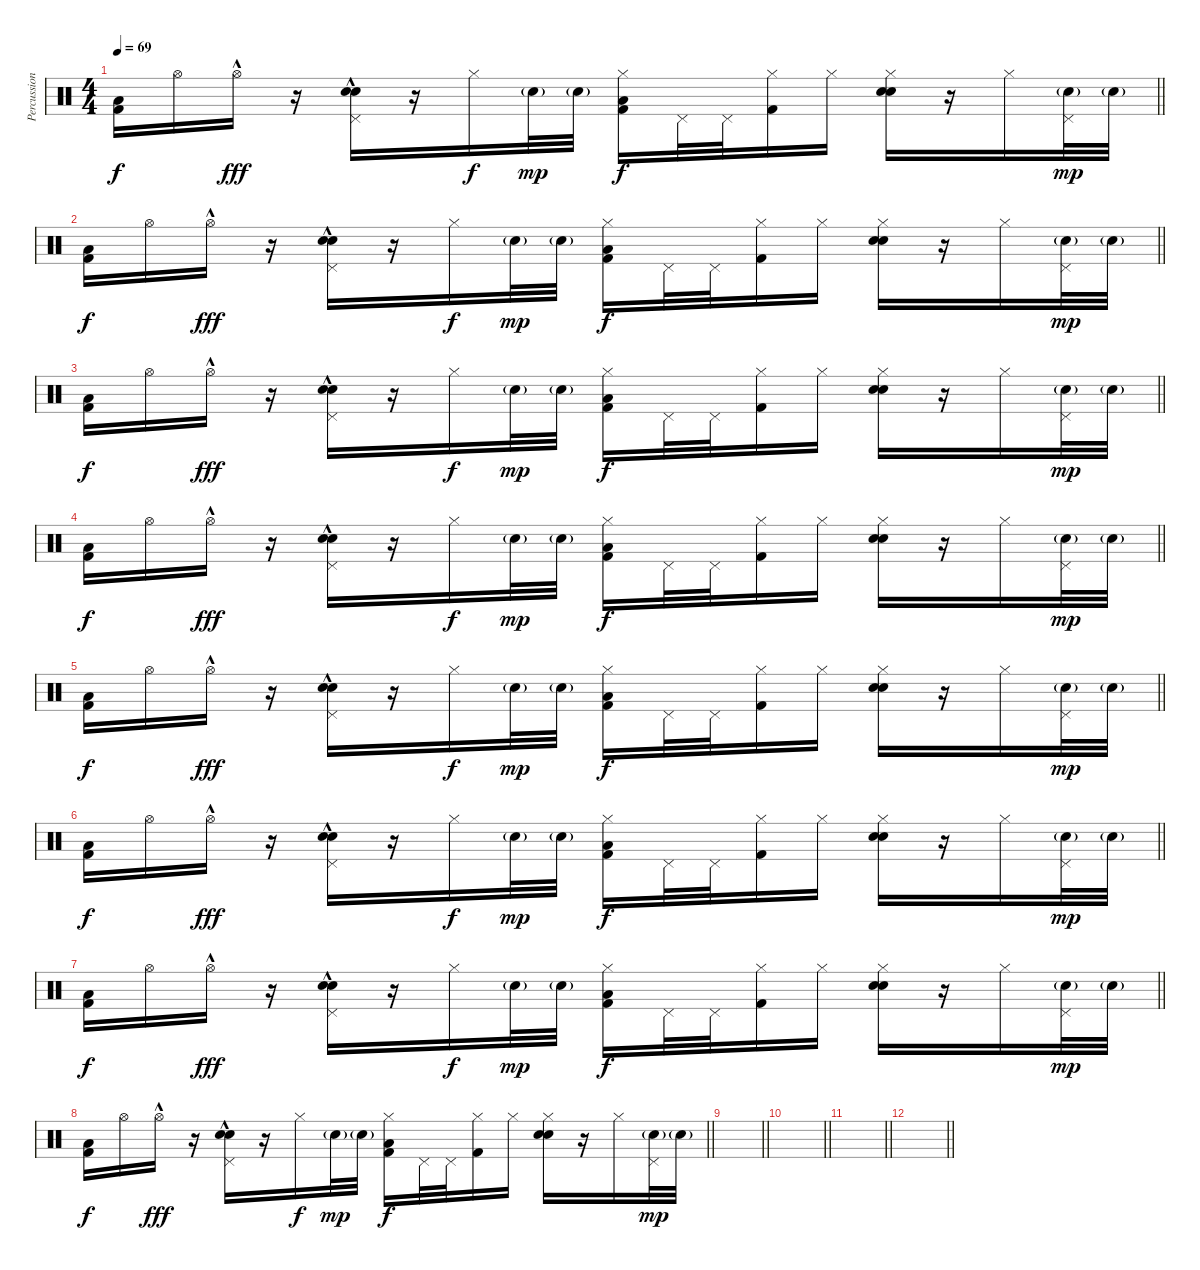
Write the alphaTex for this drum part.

\track ("Percussions" "Percussion") {instrument percussion}
\staff {score}
\articulation defaults
\ts (4 4)
\tempo 69
\clef neutral
\barLineRight lightlight
\ks c
("Low Floor Tom (hit)" "Kick (hit) 2").16{dy f} "Hi-Hat (open)".16 "Hi-Hat (open)"{hac}.16{dy fff} r.16 ("Pedal Hi-Hat (hit)"{hac} "Snare (hit) 2" "Electric Snare (hit)").16 r.16 "Hi-Hat (closed)".16{dy f} "Snare (hit) 2"{g}.32{dy mp} "Snare (hit) 2"{g}.32 ("Hi-Hat (closed)" "Low Floor Tom (hit)" "Kick (hit) 2").16{dy f} "Pedal Hi-Hat (hit)".32 "Pedal Hi-Hat (hit)".32 ("Hi-Hat (closed)" "Kick (hit) 2").16 "Hi-Hat (closed)".16 ("Hi-Hat (closed)" "Snare (hit) 2" "Electric Snare (hit)").16 r.16 "Hi-Hat (closed)".16 ("Pedal Hi-Hat (hit)" "Snare (hit) 2"{g}).32{dy mp} "Snare (hit) 2"{g}.32 |
\barLineRight lightlight
("Low Floor Tom (hit)" "Kick (hit) 2").16{dy f} "Hi-Hat (open)".16 "Hi-Hat (open)"{hac}.16{dy fff} r.16 ("Pedal Hi-Hat (hit)"{hac} "Snare (hit) 2" "Electric Snare (hit)").16 r.16 "Hi-Hat (closed)".16{dy f} "Snare (hit) 2"{g}.32{dy mp} "Snare (hit) 2"{g}.32 ("Hi-Hat (closed)" "Low Floor Tom (hit)" "Kick (hit) 2").16{dy f} "Pedal Hi-Hat (hit)".32 "Pedal Hi-Hat (hit)".32 ("Hi-Hat (closed)" "Kick (hit) 2").16 "Hi-Hat (closed)".16 ("Hi-Hat (closed)" "Snare (hit) 2" "Electric Snare (hit)").16 r.16 "Hi-Hat (closed)".16 ("Pedal Hi-Hat (hit)" "Snare (hit) 2"{g}).32{dy mp} "Snare (hit) 2"{g}.32 |
\barLineRight lightlight
("Low Floor Tom (hit)" "Kick (hit) 2").16{dy f} "Hi-Hat (open)".16 "Hi-Hat (open)"{hac}.16{dy fff} r.16 ("Pedal Hi-Hat (hit)"{hac} "Snare (hit) 2" "Electric Snare (hit)").16 r.16 "Hi-Hat (closed)".16{dy f} "Snare (hit) 2"{g}.32{dy mp} "Snare (hit) 2"{g}.32 ("Hi-Hat (closed)" "Low Floor Tom (hit)" "Kick (hit) 2").16{dy f} "Pedal Hi-Hat (hit)".32 "Pedal Hi-Hat (hit)".32 ("Hi-Hat (closed)" "Kick (hit) 2").16 "Hi-Hat (closed)".16 ("Hi-Hat (closed)" "Snare (hit) 2" "Electric Snare (hit)").16 r.16 "Hi-Hat (closed)".16 ("Pedal Hi-Hat (hit)" "Snare (hit) 2"{g}).32{dy mp} "Snare (hit) 2"{g}.32 |
\barLineRight lightlight
("Low Floor Tom (hit)" "Kick (hit) 2").16{dy f} "Hi-Hat (open)".16 "Hi-Hat (open)"{hac}.16{dy fff} r.16 ("Pedal Hi-Hat (hit)"{hac} "Snare (hit) 2" "Electric Snare (hit)").16 r.16 "Hi-Hat (closed)".16{dy f} "Snare (hit) 2"{g}.32{dy mp} "Snare (hit) 2"{g}.32 ("Hi-Hat (closed)" "Low Floor Tom (hit)" "Kick (hit) 2").16{dy f} "Pedal Hi-Hat (hit)".32 "Pedal Hi-Hat (hit)".32 ("Hi-Hat (closed)" "Kick (hit) 2").16 "Hi-Hat (closed)".16 ("Hi-Hat (closed)" "Snare (hit) 2" "Electric Snare (hit)").16 r.16 "Hi-Hat (closed)".16 ("Pedal Hi-Hat (hit)" "Snare (hit) 2"{g}).32{dy mp} "Snare (hit) 2"{g}.32 |
\barLineRight lightlight
("Low Floor Tom (hit)" "Kick (hit) 2").16{dy f volume 0} "Hi-Hat (open)".16 "Hi-Hat (open)"{hac}.16{dy fff} r.16 ("Pedal Hi-Hat (hit)"{hac} "Snare (hit) 2" "Electric Snare (hit)").16 r.16 "Hi-Hat (closed)".16{dy f} "Snare (hit) 2"{g}.32{dy mp} "Snare (hit) 2"{g}.32 ("Hi-Hat (closed)" "Low Floor Tom (hit)" "Kick (hit) 2").16{dy f} "Pedal Hi-Hat (hit)".32 "Pedal Hi-Hat (hit)".32 ("Hi-Hat (closed)" "Kick (hit) 2").16 "Hi-Hat (closed)".16 ("Hi-Hat (closed)" "Snare (hit) 2" "Electric Snare (hit)").16 r.16 "Hi-Hat (closed)".16 ("Pedal Hi-Hat (hit)" "Snare (hit) 2"{g}).32{dy mp} "Snare (hit) 2"{g}.32 |
\barLineRight lightlight
("Low Floor Tom (hit)" "Kick (hit) 2").16{dy f} "Hi-Hat (open)".16 "Hi-Hat (open)"{hac}.16{dy fff} r.16 ("Pedal Hi-Hat (hit)"{hac} "Snare (hit) 2" "Electric Snare (hit)").16 r.16 "Hi-Hat (closed)".16{dy f} "Snare (hit) 2"{g}.32{dy mp} "Snare (hit) 2"{g}.32 ("Hi-Hat (closed)" "Low Floor Tom (hit)" "Kick (hit) 2").16{dy f} "Pedal Hi-Hat (hit)".32 "Pedal Hi-Hat (hit)".32 ("Hi-Hat (closed)" "Kick (hit) 2").16 "Hi-Hat (closed)".16 ("Hi-Hat (closed)" "Snare (hit) 2" "Electric Snare (hit)").16 r.16 "Hi-Hat (closed)".16 ("Pedal Hi-Hat (hit)" "Snare (hit) 2"{g}).32{dy mp} "Snare (hit) 2"{g}.32 |
\barLineRight lightlight
("Low Floor Tom (hit)" "Kick (hit) 2").16{dy f} "Hi-Hat (open)".16 "Hi-Hat (open)"{hac}.16{dy fff} r.16 ("Pedal Hi-Hat (hit)"{hac} "Snare (hit) 2" "Electric Snare (hit)").16 r.16 "Hi-Hat (closed)".16{dy f} "Snare (hit) 2"{g}.32{dy mp} "Snare (hit) 2"{g}.32 ("Hi-Hat (closed)" "Low Floor Tom (hit)" "Kick (hit) 2").16{dy f} "Pedal Hi-Hat (hit)".32 "Pedal Hi-Hat (hit)".32 ("Hi-Hat (closed)" "Kick (hit) 2").16 "Hi-Hat (closed)".16 ("Hi-Hat (closed)" "Snare (hit) 2" "Electric Snare (hit)").16 r.16 "Hi-Hat (closed)".16 ("Pedal Hi-Hat (hit)" "Snare (hit) 2"{g}).32{dy mp} "Snare (hit) 2"{g}.32 |
\barLineRight lightlight
("Low Floor Tom (hit)" "Kick (hit) 2").16{dy f} "Hi-Hat (open)".16 "Hi-Hat (open)"{hac}.16{dy fff} r.16 ("Pedal Hi-Hat (hit)"{hac} "Snare (hit) 2" "Electric Snare (hit)").16 r.16 "Hi-Hat (closed)".16{dy f} "Snare (hit) 2"{g}.32{dy mp} "Snare (hit) 2"{g}.32 ("Hi-Hat (closed)" "Low Floor Tom (hit)" "Kick (hit) 2").16{dy f} "Pedal Hi-Hat (hit)".32 "Pedal Hi-Hat (hit)".32 ("Hi-Hat (closed)" "Kick (hit) 2").16 "Hi-Hat (closed)".16 ("Hi-Hat (closed)" "Snare (hit) 2" "Electric Snare (hit)").16 r.16 "Hi-Hat (closed)".16 ("Pedal Hi-Hat (hit)" "Snare (hit) 2"{g}).32{dy mp} "Snare (hit) 2"{g}.32 |
\barLineRight lightlight
|
\barLineRight lightlight
|
\barLineRight lightlight
|
\barLineRight lightlight
